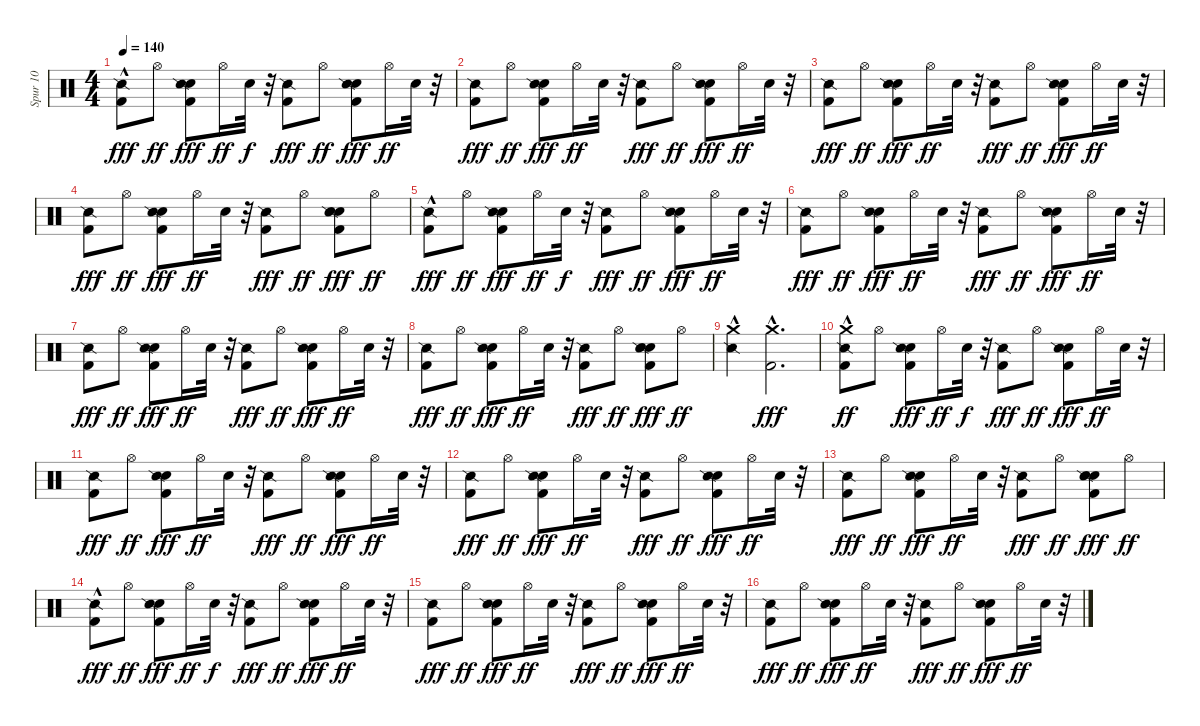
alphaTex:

\track ("Spur 10" "Spur 10") {instrument percussion}
\staff {score}
\articulation defaults
\ts (4 4)
\tempo 140
\clef neutral
\ks c
("Kick (hit) 2"{hac} "Snare (side stick) 2").8{dy fff} "Hi-Hat (open)".8{dy ff} ("Kick (hit) 2" "Hand Clap (hit)" "Snare (side stick) 2").8{dy fff} "Hi-Hat (open)".16{dy ff} "Snare (hit) 2".32{dy f} r.32 ("Kick (hit) 2" "Snare (side stick) 2").8{dy fff} "Hi-Hat (open)".8{dy ff} ("Kick (hit) 2" "Hand Clap (hit)" "Snare (side stick) 2").8{dy fff} "Hi-Hat (open)".16{dy ff} "Snare (hit) 2".32 r.32 |
("Kick (hit) 2" "Snare (side stick) 2").8{dy fff} "Hi-Hat (open)".8{dy ff} ("Kick (hit) 2" "Hand Clap (hit)" "Snare (side stick) 2").8{dy fff} "Hi-Hat (open)".16{dy ff} "Snare (hit) 2".32 r.32 ("Kick (hit) 2" "Snare (side stick) 2").8{dy fff} "Hi-Hat (open)".8{dy ff} ("Kick (hit) 2" "Hand Clap (hit)" "Snare (side stick) 2").8{dy fff} "Hi-Hat (open)".16{dy ff} "Snare (hit) 2".32 r.32 |
("Kick (hit) 2" "Snare (side stick) 2").8{dy fff} "Hi-Hat (open)".8{dy ff} ("Kick (hit) 2" "Hand Clap (hit)" "Snare (side stick) 2").8{dy fff} "Hi-Hat (open)".16{dy ff} "Snare (hit) 2".32 r.32 ("Kick (hit) 2" "Snare (side stick) 2").8{dy fff} "Hi-Hat (open)".8{dy ff} ("Kick (hit) 2" "Hand Clap (hit)" "Snare (side stick) 2").8{dy fff} "Hi-Hat (open)".16{dy ff} "Snare (hit) 2".32 r.32 |
("Kick (hit) 2" "Snare (side stick) 2").8{dy fff} "Hi-Hat (open)".8{dy ff} ("Kick (hit) 2" "Hand Clap (hit)" "Snare (side stick) 2").8{dy fff} "Hi-Hat (open)".16{dy ff} "Snare (hit) 2".32 r.32 ("Kick (hit) 2" "Snare (side stick) 2").8{dy fff} "Hi-Hat (open)".8{dy ff} ("Kick (hit) 2" "Hand Clap (hit)" "Snare (hit) 2" "Snare (side stick) 2").8{dy fff} "Hi-Hat (open)".8{dy ff} |
("Kick (hit) 2"{hac} "Snare (side stick) 2").8{dy fff} "Hi-Hat (open)".8{dy ff} ("Kick (hit) 2" "Hand Clap (hit)" "Snare (side stick) 2").8{dy fff} "Hi-Hat (open)".16{dy ff} "Snare (hit) 2".32{dy f} r.32 ("Kick (hit) 2" "Snare (side stick) 2").8{dy fff} "Hi-Hat (open)".8{dy ff} ("Kick (hit) 2" "Hand Clap (hit)" "Snare (side stick) 2").8{dy fff} "Hi-Hat (open)".16{dy ff} "Snare (hit) 2".32 r.32 |
("Kick (hit) 2" "Snare (side stick) 2").8{dy fff} "Hi-Hat (open)".8{dy ff} ("Kick (hit) 2" "Hand Clap (hit)" "Snare (side stick) 2").8{dy fff} "Hi-Hat (open)".16{dy ff} "Snare (hit) 2".32 r.32 ("Kick (hit) 2" "Snare (side stick) 2").8{dy fff} "Hi-Hat (open)".8{dy ff} ("Kick (hit) 2" "Hand Clap (hit)" "Snare (side stick) 2").8{dy fff} "Hi-Hat (open)".16{dy ff} "Snare (hit) 2".32 r.32 |
("Kick (hit) 2" "Snare (side stick) 2").8{dy fff} "Hi-Hat (open)".8{dy ff} ("Kick (hit) 2" "Hand Clap (hit)" "Snare (side stick) 2").8{dy fff} "Hi-Hat (open)".16{dy ff} "Snare (hit) 2".32 r.32 ("Kick (hit) 2" "Snare (side stick) 2").8{dy fff} "Hi-Hat (open)".8{dy ff} ("Kick (hit) 2" "Hand Clap (hit)" "Snare (side stick) 2").8{dy fff} "Hi-Hat (open)".16{dy ff} "Snare (hit) 2".32 r.32 |
("Kick (hit) 2" "Snare (side stick) 2").8{dy fff} "Hi-Hat (open)".8{dy ff} ("Kick (hit) 2" "Hand Clap (hit)" "Snare (side stick) 2").8{dy fff} "Hi-Hat (open)".16{dy ff} "Snare (hit) 2".32 r.32 ("Kick (hit) 2" "Snare (side stick) 2").8{dy fff} "Hi-Hat (open)".8{dy ff} ("Kick (hit) 2" "Hand Clap (hit)" "Snare (hit) 2" "Snare (side stick) 2").8{dy fff} "Hi-Hat (open)".8{dy ff} |
("Snare (side stick) 2"{hac} "Crash medium (hit)").4 ("Crash medium (hit)"{hac} "Kick (hit) 2"{hac}).2{d dy fff} |
("Kick (hit) 2"{hac} "Snare (side stick) 2" "Crash medium (hit)"{hac}).8{dy ff} "Hi-Hat (open)".8 ("Kick (hit) 2" "Hand Clap (hit)" "Snare (side stick) 2").8{dy fff} "Hi-Hat (open)".16{dy ff} "Snare (hit) 2".32{dy f} r.32 ("Kick (hit) 2" "Snare (side stick) 2").8{dy fff} "Hi-Hat (open)".8{dy ff} ("Kick (hit) 2" "Hand Clap (hit)" "Snare (side stick) 2").8{dy fff} "Hi-Hat (open)".16{dy ff} "Snare (hit) 2".32 r.32 |
("Kick (hit) 2" "Snare (side stick) 2").8{dy fff} "Hi-Hat (open)".8{dy ff} ("Kick (hit) 2" "Hand Clap (hit)" "Snare (side stick) 2").8{dy fff} "Hi-Hat (open)".16{dy ff} "Snare (hit) 2".32 r.32 ("Kick (hit) 2" "Snare (side stick) 2").8{dy fff} "Hi-Hat (open)".8{dy ff} ("Kick (hit) 2" "Hand Clap (hit)" "Snare (side stick) 2").8{dy fff} "Hi-Hat (open)".16{dy ff} "Snare (hit) 2".32 r.32 |
("Kick (hit) 2" "Snare (side stick) 2").8{dy fff} "Hi-Hat (open)".8{dy ff} ("Kick (hit) 2" "Hand Clap (hit)" "Snare (side stick) 2").8{dy fff} "Hi-Hat (open)".16{dy ff} "Snare (hit) 2".32 r.32 ("Kick (hit) 2" "Snare (side stick) 2").8{dy fff} "Hi-Hat (open)".8{dy ff} ("Kick (hit) 2" "Hand Clap (hit)" "Snare (side stick) 2").8{dy fff} "Hi-Hat (open)".16{dy ff} "Snare (hit) 2".32 r.32 |
("Kick (hit) 2" "Snare (side stick) 2").8{dy fff} "Hi-Hat (open)".8{dy ff} ("Kick (hit) 2" "Hand Clap (hit)" "Snare (side stick) 2").8{dy fff} "Hi-Hat (open)".16{dy ff} "Snare (hit) 2".32 r.32 ("Kick (hit) 2" "Snare (side stick) 2").8{dy fff} "Hi-Hat (open)".8{dy ff} ("Kick (hit) 2" "Hand Clap (hit)" "Snare (hit) 2" "Snare (side stick) 2").8{dy fff} "Hi-Hat (open)".8{dy ff} |
("Kick (hit) 2"{hac} "Snare (side stick) 2").8{dy fff} "Hi-Hat (open)".8{dy ff} ("Kick (hit) 2" "Hand Clap (hit)" "Snare (side stick) 2").8{dy fff} "Hi-Hat (open)".16{dy ff} "Snare (hit) 2".32{dy f} r.32 ("Kick (hit) 2" "Snare (side stick) 2").8{dy fff} "Hi-Hat (open)".8{dy ff} ("Kick (hit) 2" "Hand Clap (hit)" "Snare (side stick) 2").8{dy fff} "Hi-Hat (open)".16{dy ff} "Snare (hit) 2".32 r.32 |
("Kick (hit) 2" "Snare (side stick) 2").8{dy fff} "Hi-Hat (open)".8{dy ff} ("Kick (hit) 2" "Hand Clap (hit)" "Snare (side stick) 2").8{dy fff} "Hi-Hat (open)".16{dy ff} "Snare (hit) 2".32 r.32 ("Kick (hit) 2" "Snare (side stick) 2").8{dy fff} "Hi-Hat (open)".8{dy ff} ("Kick (hit) 2" "Hand Clap (hit)" "Snare (side stick) 2").8{dy fff} "Hi-Hat (open)".16{dy ff} "Snare (hit) 2".32 r.32 |
("Kick (hit) 2" "Snare (side stick) 2").8{dy fff} "Hi-Hat (open)".8{dy ff} ("Kick (hit) 2" "Hand Clap (hit)" "Snare (side stick) 2").8{dy fff} "Hi-Hat (open)".16{dy ff} "Snare (hit) 2".32 r.32 ("Kick (hit) 2" "Snare (side stick) 2").8{dy fff} "Hi-Hat (open)".8{dy ff} ("Kick (hit) 2" "Hand Clap (hit)" "Snare (side stick) 2").8{dy fff} "Hi-Hat (open)".16{dy ff} "Snare (hit) 2".32 r.32
